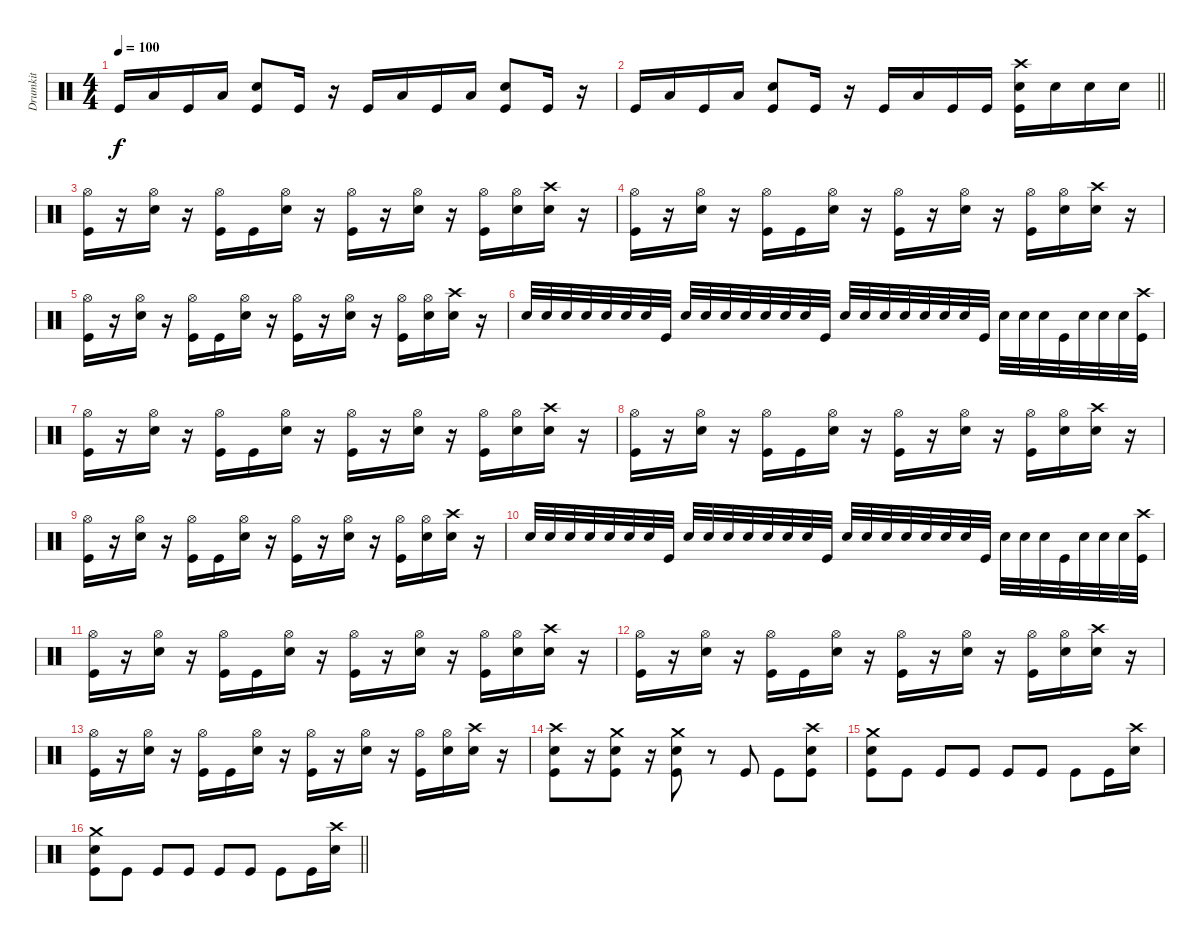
\track ("Drumkit" "Drumkit") {instrument percussion}
\staff {score}
\articulation defaults
\ts (4 4)
\tempo 100
\clef neutral
\ks c "Kick (hit)".16{dy f} "Low Floor Tom (hit)".16 "Kick (hit)".16 "Low Floor Tom (hit)".16
("Snare (hit) 2" "Kick (hit)").8 "Kick (hit)".16 r.16 "Kick (hit)".16 "Low Floor Tom (hit)".16 "Kick (hit)".16 "Low Floor Tom (hit)".16 ("Snare (hit) 2" "Kick (hit)").8 "Kick (hit)".16 r.16 |
\barLineRight lightlight "Kick (hit)".16 "Low Floor Tom (hit)".16 "Kick (hit)".16 "Low Floor Tom (hit)".16
("Snare (hit) 2" "Kick (hit)").8 "Kick (hit)".16 r.16 "Kick (hit)".16 "Low Floor Tom (hit)".16 "Kick (hit)".16 "Kick (hit)".16 ("Crash high (hit)" "Snare (hit) 2" "Kick (hit)").16 "Snare (hit) 2".16 "Snare (hit) 2".16 "Snare (hit) 2".16 |
("Hi-Hat (open)" "Kick (hit)").16 r.16 ("Hi-Hat (open)" "Snare (hit) 2").16 r.16 ("Hi-Hat (open)" "Kick (hit)").16 "Kick (hit)".16 ("Hi-Hat (open)" "Snare (hit) 2").16 r.16 ("Hi-Hat (open)" "Kick (hit)").16 r.16 ("Hi-Hat (open)" "Snare (hit) 2").16 r.16 ("Hi-Hat (open)" "Kick (hit)").16 ("Hi-Hat (open)" "Snare (hit) 2").16 ("Crash high (hit)" "Snare (hit) 2").16 r.16 |
("Hi-Hat (open)" "Kick (hit)").16 r.16 ("Hi-Hat (open)" "Snare (hit) 2").16 r.16 ("Hi-Hat (open)" "Kick (hit)").16 "Kick (hit)".16 ("Hi-Hat (open)" "Snare (hit) 2").16 r.16 ("Hi-Hat (open)" "Kick (hit)").16 r.16 ("Hi-Hat (open)" "Snare (hit) 2").16 r.16 ("Hi-Hat (open)" "Kick (hit)").16 ("Hi-Hat (open)" "Snare (hit) 2").16 ("Crash high (hit)" "Snare (hit) 2").16 r.16 |
("Hi-Hat (open)" "Kick (hit)").16 r.16 ("Hi-Hat (open)" "Snare (hit) 2").16 r.16 ("Hi-Hat (open)" "Kick (hit)").16 "Kick (hit)".16 ("Hi-Hat (open)" "Snare (hit) 2").16 r.16 ("Hi-Hat (open)" "Kick (hit)").16 r.16 ("Hi-Hat (open)" "Snare (hit) 2").16 r.16 ("Hi-Hat (open)" "Kick (hit)").16 ("Hi-Hat (open)" "Snare (hit) 2").16 ("Crash high (hit)" "Snare (hit) 2").16 r.16 |
"Snare (hit) 2".32 "Snare (hit) 2".32 "Snare (hit) 2".32 "Snare (hit) 2".32 "Snare (hit) 2".32 "Snare (hit) 2".32 "Snare (hit) 2".32 "Kick (hit)".32 "Snare (hit) 2".32 "Snare (hit) 2".32 "Snare (hit) 2".32 "Snare (hit) 2".32 "Snare (hit) 2".32 "Snare (hit) 2".32 "Snare (hit) 2".32 "Kick (hit)".32 "Snare (hit) 2".32 "Snare (hit) 2".32 "Snare (hit) 2".32 "Snare (hit) 2".32 "Snare (hit) 2".32 "Snare (hit) 2".32 "Snare (hit) 2".32 "Kick (hit)".32 "Snare (hit) 2".32 "Snare (hit) 2".32 "Snare (hit) 2".32 "Kick (hit)".32 "Snare (hit) 2".32 "Snare (hit) 2".32 "Snare (hit) 2".32 ("Crash high (hit)" "Kick (hit)").32 |
("Hi-Hat (open)" "Kick (hit)").16 r.16 ("Hi-Hat (open)" "Snare (hit) 2").16 r.16 ("Hi-Hat (open)" "Kick (hit)").16 "Kick (hit)".16 ("Hi-Hat (open)" "Snare (hit) 2").16 r.16 ("Hi-Hat (open)" "Kick (hit)").16 r.16 ("Hi-Hat (open)" "Snare (hit) 2").16 r.16 ("Hi-Hat (open)" "Kick (hit)").16 ("Hi-Hat (open)" "Snare (hit) 2").16 ("Crash high (hit)" "Snare (hit) 2").16 r.16 |
("Hi-Hat (open)" "Kick (hit)").16 r.16 ("Hi-Hat (open)" "Snare (hit) 2").16 r.16 ("Hi-Hat (open)" "Kick (hit)").16 "Kick (hit)".16 ("Hi-Hat (open)" "Snare (hit) 2").16 r.16 ("Hi-Hat (open)" "Kick (hit)").16 r.16 ("Hi-Hat (open)" "Snare (hit) 2").16 r.16 ("Hi-Hat (open)" "Kick (hit)").16 ("Hi-Hat (open)" "Snare (hit) 2").16 ("Crash high (hit)" "Snare (hit) 2").16 r.16 |
("Hi-Hat (open)" "Kick (hit)").16 r.16 ("Hi-Hat (open)" "Snare (hit) 2").16 r.16 ("Hi-Hat (open)" "Kick (hit)").16 "Kick (hit)".16 ("Hi-Hat (open)" "Snare (hit) 2").16 r.16 ("Hi-Hat (open)" "Kick (hit)").16 r.16 ("Hi-Hat (open)" "Snare (hit) 2").16 r.16 ("Hi-Hat (open)" "Kick (hit)").16 ("Hi-Hat (open)" "Snare (hit) 2").16 ("Crash high (hit)" "Snare (hit) 2").16 r.16 |
"Snare (hit) 2".32 "Snare (hit) 2".32 "Snare (hit) 2".32 "Snare (hit) 2".32 "Snare (hit) 2".32 "Snare (hit) 2".32 "Snare (hit) 2".32 "Kick (hit)".32 "Snare (hit) 2".32 "Snare (hit) 2".32 "Snare (hit) 2".32 "Snare (hit) 2".32 "Snare (hit) 2".32 "Snare (hit) 2".32 "Snare (hit) 2".32 "Kick (hit)".32 "Snare (hit) 2".32 "Snare (hit) 2".32 "Snare (hit) 2".32 "Snare (hit) 2".32 "Snare (hit) 2".32 "Snare (hit) 2".32 "Snare (hit) 2".32 "Kick (hit)".32 "Snare (hit) 2".32 "Snare (hit) 2".32 "Snare (hit) 2".32 "Kick (hit)".32 "Snare (hit) 2".32 "Snare (hit) 2".32 "Snare (hit) 2".32 ("Crash high (hit)" "Kick (hit)").32 |
("Hi-Hat (open)" "Kick (hit)").16 r.16 ("Hi-Hat (open)" "Snare (hit) 2").16 r.16 ("Hi-Hat (open)" "Kick (hit)").16 "Kick (hit)".16 ("Hi-Hat (open)" "Snare (hit) 2").16 r.16 ("Hi-Hat (open)" "Kick (hit)").16 r.16 ("Hi-Hat (open)" "Snare (hit) 2").16 r.16 ("Hi-Hat (open)" "Kick (hit)").16 ("Hi-Hat (open)" "Snare (hit) 2").16 ("Crash high (hit)" "Snare (hit) 2").16 r.16 |
("Hi-Hat (open)" "Kick (hit)").16 r.16 ("Hi-Hat (open)" "Snare (hit) 2").16 r.16 ("Hi-Hat (open)" "Kick (hit)").16 "Kick (hit)".16 ("Hi-Hat (open)" "Snare (hit) 2").16 r.16 ("Hi-Hat (open)" "Kick (hit)").16 r.16 ("Hi-Hat (open)" "Snare (hit) 2").16 r.16 ("Hi-Hat (open)" "Kick (hit)").16 ("Hi-Hat (open)" "Snare (hit) 2").16 ("Crash high (hit)" "Snare (hit) 2").16 r.16 |
("Hi-Hat (open)" "Kick (hit)").16 r.16 ("Hi-Hat (open)" "Snare (hit) 2").16 r.16 ("Hi-Hat (open)" "Kick (hit)").16 "Kick (hit)".16 ("Hi-Hat (open)" "Snare (hit) 2").16 r.16 ("Hi-Hat (open)" "Kick (hit)").16 r.16 ("Hi-Hat (open)" "Snare (hit) 2").16 r.16 ("Hi-Hat (open)" "Kick (hit)").16 ("Hi-Hat (open)" "Snare (hit) 2").16 ("Crash high (hit)" "Snare (hit) 2").16 r.16 |
("Crash high (hit)" "Snare (hit) 2" "Kick (hit)").8 r.16 ("Crash medium (hit)" "Snare (hit) 2" "Kick (hit)").8 r.16 ("Crash medium (hit)" "Snare (hit) 2" "Kick (hit)").8 r.8 "Kick (hit)".8 "Kick (hit)".8 ("Crash high (hit)" "Snare (hit) 2" "Kick (hit)").8 |
("Crash medium (hit)" "Snare (hit) 2" "Kick (hit)").8 "Kick (hit)".8 "Kick (hit)".8 "Kick (hit)".8 "Kick (hit)".8 "Kick (hit)".8 "Kick (hit)".8 "Kick (hit)".16 ("Crash high (hit)" "Snare (hit) 2").16 |
\barLineRight lightlight
("Crash medium (hit)" "Snare (hit) 2" "Kick (hit)").8 "Kick (hit)".8 "Kick (hit)".8 "Kick (hit)".8 "Kick (hit)".8 "Kick (hit)".8 "Kick (hit)".8 "Kick (hit)".16 ("Crash high (hit)" "Snare (hit) 2").16
